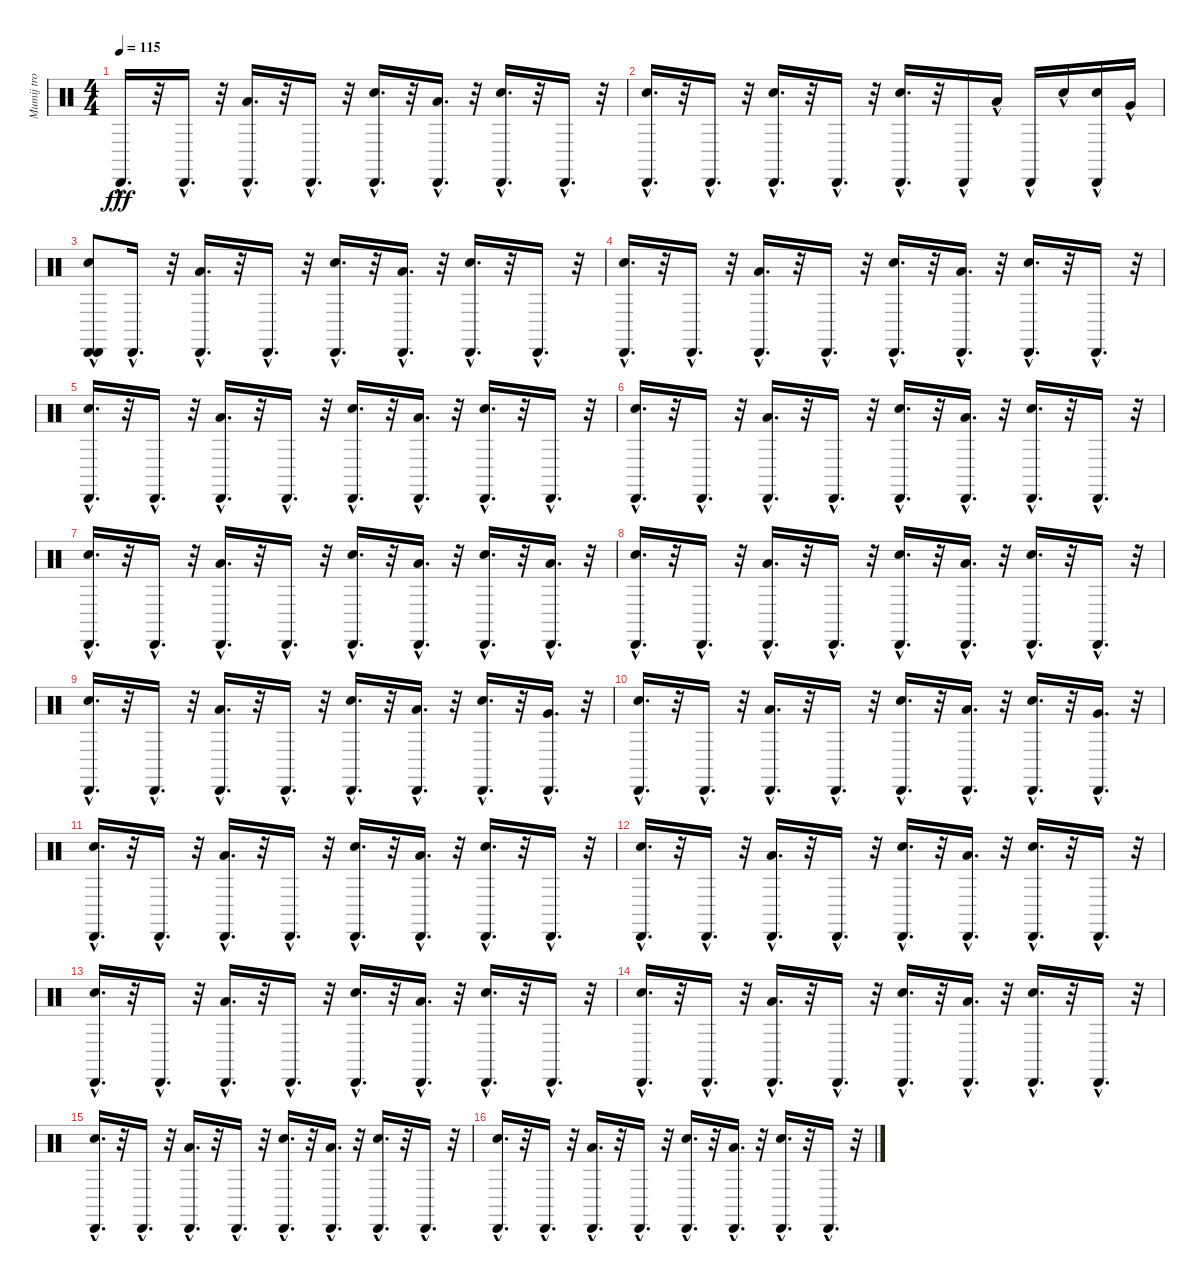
\track (" Mumij troll" " Mumij tro") {instrument percussion}
\staff {score}
\articulation defaults
\ts (4 4)
\tempo 115
\clef neutral
\ks c "Cabasa (hit)"{hac}.16{d dy fff}
r.32 "Cabasa (hit)"{hac}.16{d} r.32 ("Low Tom (hit)"{hac} "Cabasa (hit)"{hac}).16{d} r.32 "Cabasa (hit)"{hac}.16{d} r.32 ("Electric Snare (hit)"{hac} "Cabasa (hit)"{hac}).16{d} r.32 ("Low Floor Tom (hit)"{hac} "Cabasa (hit)"{hac}).16{d} r.32 ("Snare (hit) 2"{hac} "Cabasa (hit)"{hac}).16{d} r.32 "Cabasa (hit)"{hac}.16{d} r.32 |
("Electric Snare (hit)"{hac} "Cabasa (hit)"{hac}).16{d} r.32 "Cabasa (hit)"{hac}.16{d} r.32 ("Snare (hit) 2"{hac} "Cabasa (hit)"{hac}).16{d} r.32 "Cabasa (hit)"{hac}.16{d} r.32 ("Electric Snare (hit)"{hac} "Cabasa (hit)"{hac}).16{d} r.32 "Cabasa (hit)"{hac}.16 "Low Floor Tom (hit)"{hac}.16 "Cabasa (hit)"{hac}.16 "Snare (hit) 2"{hac}.16 ("Electric Snare (hit)"{hac} "Cabasa (hit)"{hac}).16 "Very Low Tom (hit)"{hac}.16 |
("Cabasa (hit)" "Electric Snare (hit)"{hac} "Cabasa (hit)"{hac}).8 "Cabasa (hit)"{hac}.16{d} r.32 ("Low Tom (hit)"{hac} "Cabasa (hit)"{hac}).16{d} r.32 "Cabasa (hit)"{hac}.16{d} r.32 ("Electric Snare (hit)"{hac} "Cabasa (hit)"{hac}).16{d} r.32 ("Low Floor Tom (hit)"{hac} "Cabasa (hit)"{hac}).16{d} r.32 ("Snare (hit) 2"{hac} "Cabasa (hit)"{hac}).16{d} r.32 "Cabasa (hit)"{hac}.16{d} r.32 |
("Electric Snare (hit)"{hac} "Cabasa (hit)"{hac}).16{d} r.32 "Cabasa (hit)"{hac}.16{d} r.32 ("Low Tom (hit)"{hac} "Cabasa (hit)"{hac}).16{d} r.32 "Cabasa (hit)"{hac}.16{d} r.32 ("Electric Snare (hit)"{hac} "Cabasa (hit)"{hac}).16{d} r.32 ("Low Floor Tom (hit)"{hac} "Cabasa (hit)"{hac}).16{d} r.32 ("Snare (hit) 2"{hac} "Cabasa (hit)"{hac}).16{d} r.32 "Cabasa (hit)"{hac}.16{d} r.32 |
("Electric Snare (hit)"{hac} "Cabasa (hit)"{hac}).16{d} r.32 "Cabasa (hit)"{hac}.16{d} r.32 ("Low Tom (hit)"{hac} "Cabasa (hit)"{hac}).16{d} r.32 "Cabasa (hit)"{hac}.16{d} r.32 ("Electric Snare (hit)"{hac} "Cabasa (hit)"{hac}).16{d} r.32 ("Low Floor Tom (hit)"{hac} "Cabasa (hit)"{hac}).16{d} r.32 ("Snare (hit) 2"{hac} "Cabasa (hit)"{hac}).16{d} r.32 "Cabasa (hit)"{hac}.16{d} r.32 |
("Electric Snare (hit)"{hac} "Cabasa (hit)"{hac}).16{d} r.32 "Cabasa (hit)"{hac}.16{d} r.32 ("Low Tom (hit)"{hac} "Cabasa (hit)"{hac}).16{d} r.32 "Cabasa (hit)"{hac}.16{d} r.32 ("Electric Snare (hit)"{hac} "Cabasa (hit)"{hac}).16{d} r.32 ("Low Floor Tom (hit)"{hac} "Cabasa (hit)"{hac}).16{d} r.32 ("Snare (hit) 2"{hac} "Cabasa (hit)"{hac}).16{d} r.32 "Cabasa (hit)"{hac}.16{d} r.32 |
("Electric Snare (hit)"{hac} "Cabasa (hit)"{hac}).16{d} r.32 "Cabasa (hit)"{hac}.16{d} r.32 ("Low Tom (hit)"{hac} "Cabasa (hit)"{hac}).16{d} r.32 "Cabasa (hit)"{hac}.16{d} r.32 ("Electric Snare (hit)"{hac} "Cabasa (hit)"{hac}).16{d} r.32 ("Low Floor Tom (hit)"{hac} "Cabasa (hit)"{hac}).16{d} r.32 ("Snare (hit) 2"{hac} "Cabasa (hit)"{hac}).16{d} r.32 ("Low Tom (hit)"{hac} "Cabasa (hit)"{hac}).16{d} r.32 |
("Electric Snare (hit)"{hac} "Cabasa (hit)"{hac}).16{d} r.32 "Cabasa (hit)"{hac}.16{d} r.32 ("Low Tom (hit)"{hac} "Cabasa (hit)"{hac}).16{d} r.32 "Cabasa (hit)"{hac}.16{d} r.32 ("Electric Snare (hit)"{hac} "Cabasa (hit)"{hac}).16{d} r.32 ("Low Floor Tom (hit)"{hac} "Cabasa (hit)"{hac}).16{d} r.32 ("Snare (hit) 2"{hac} "Cabasa (hit)"{hac}).16{d} r.32 "Cabasa (hit)"{hac}.16{d} r.32 |
("Electric Snare (hit)"{hac} "Cabasa (hit)"{hac}).16{d} r.32 "Cabasa (hit)"{hac}.16{d} r.32 ("Low Tom (hit)"{hac} "Cabasa (hit)"{hac}).16{d} r.32 "Cabasa (hit)"{hac}.16{d} r.32 ("Electric Snare (hit)"{hac} "Cabasa (hit)"{hac}).16{d} r.32 ("Low Floor Tom (hit)"{hac} "Cabasa (hit)"{hac}).16{d} r.32 ("Snare (hit) 2"{hac} "Cabasa (hit)"{hac}).16{d} r.32 ("Very Low Tom (hit)"{hac} "Cabasa (hit)"{hac}).16{d} r.32 |
("Electric Snare (hit)"{hac} "Cabasa (hit)"{hac}).16{d} r.32 "Cabasa (hit)"{hac}.16{d} r.32 ("Low Tom (hit)"{hac} "Cabasa (hit)"{hac}).16{d} r.32 "Cabasa (hit)"{hac}.16{d} r.32 ("Electric Snare (hit)"{hac} "Cabasa (hit)"{hac}).16{d} r.32 ("Low Floor Tom (hit)"{hac} "Cabasa (hit)"{hac}).16{d} r.32 ("Snare (hit) 2"{hac} "Cabasa (hit)"{hac}).16{d} r.32 ("Very Low Tom (hit)"{hac} "Cabasa (hit)"{hac}).16{d} r.32 |
("Electric Snare (hit)"{hac} "Cabasa (hit)"{hac}).16{d} r.32 "Cabasa (hit)"{hac}.16{d} r.32 ("Low Tom (hit)"{hac} "Cabasa (hit)"{hac}).16{d} r.32 "Cabasa (hit)"{hac}.16{d} r.32 ("Electric Snare (hit)"{hac} "Cabasa (hit)"{hac}).16{d} r.32 ("Low Floor Tom (hit)"{hac} "Cabasa (hit)"{hac}).16{d} r.32 ("Snare (hit) 2"{hac} "Cabasa (hit)"{hac}).16{d} r.32 "Cabasa (hit)"{hac}.16{d} r.32 |
("Electric Snare (hit)"{hac} "Cabasa (hit)"{hac}).16{d} r.32 "Cabasa (hit)"{hac}.16{d} r.32 ("Low Tom (hit)"{hac} "Cabasa (hit)"{hac}).16{d} r.32 "Cabasa (hit)"{hac}.16{d} r.32 ("Electric Snare (hit)"{hac} "Cabasa (hit)"{hac}).16{d} r.32 ("Low Floor Tom (hit)"{hac} "Cabasa (hit)"{hac}).16{d} r.32 ("Snare (hit) 2"{hac} "Cabasa (hit)"{hac}).16{d} r.32 "Cabasa (hit)"{hac}.16{d} r.32 |
("Electric Snare (hit)"{hac} "Cabasa (hit)"{hac}).16{d} r.32 "Cabasa (hit)"{hac}.16{d} r.32 ("Low Tom (hit)"{hac} "Cabasa (hit)"{hac}).16{d} r.32 "Cabasa (hit)"{hac}.16{d} r.32 ("Electric Snare (hit)"{hac} "Cabasa (hit)"{hac}).16{d} r.32 ("Low Floor Tom (hit)"{hac} "Cabasa (hit)"{hac}).16{d} r.32 ("Snare (hit) 2"{hac} "Cabasa (hit)"{hac}).16{d} r.32 "Cabasa (hit)"{hac}.16{d} r.32 |
("Electric Snare (hit)"{hac} "Cabasa (hit)"{hac}).16{d} r.32 "Cabasa (hit)"{hac}.16{d} r.32 ("Low Tom (hit)"{hac} "Cabasa (hit)"{hac}).16{d} r.32 "Cabasa (hit)"{hac}.16{d} r.32 ("Electric Snare (hit)"{hac} "Cabasa (hit)"{hac}).16{d} r.32 ("Low Floor Tom (hit)"{hac} "Cabasa (hit)"{hac}).16{d} r.32 ("Snare (hit) 2"{hac} "Cabasa (hit)"{hac}).16{d} r.32 "Cabasa (hit)"{hac}.16{d} r.32 |
("Electric Snare (hit)"{hac} "Cabasa (hit)"{hac}).16{d} r.32 "Cabasa (hit)"{hac}.16{d} r.32 ("Low Tom (hit)"{hac} "Cabasa (hit)"{hac}).16{d} r.32 "Cabasa (hit)"{hac}.16{d} r.32 ("Electric Snare (hit)"{hac} "Cabasa (hit)"{hac}).16{d} r.32 ("Low Floor Tom (hit)"{hac} "Cabasa (hit)"{hac}).16{d} r.32 ("Snare (hit) 2"{hac} "Cabasa (hit)"{hac}).16{d} r.32 "Cabasa (hit)"{hac}.16{d} r.32 |
("Electric Snare (hit)"{hac} "Cabasa (hit)"{hac}).16{d} r.32 "Cabasa (hit)"{hac}.16{d} r.32 ("Low Tom (hit)"{hac} "Cabasa (hit)"{hac}).16{d} r.32 "Cabasa (hit)"{hac}.16{d} r.32 ("Electric Snare (hit)"{hac} "Cabasa (hit)"{hac}).16{d} r.32 ("Low Floor Tom (hit)"{hac} "Cabasa (hit)"{hac}).16{d} r.32 ("Snare (hit) 2"{hac} "Cabasa (hit)"{hac}).16{d} r.32 "Cabasa (hit)"{hac}.16{d} r.32
